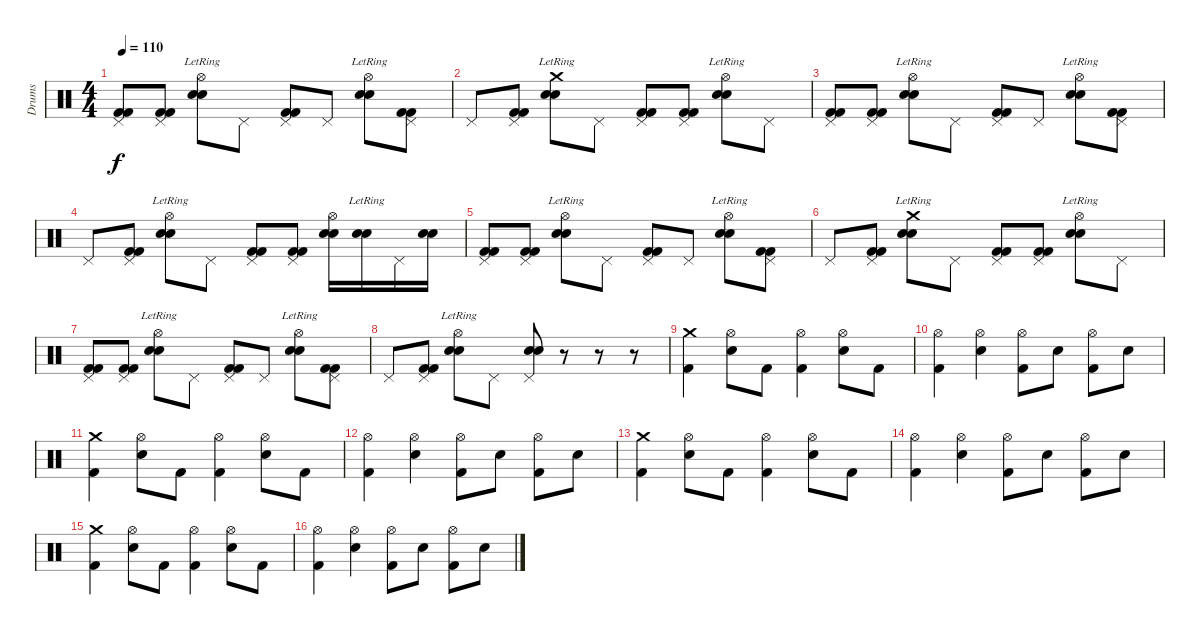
\track ("Drums" "Drums") {instrument percussion}
\staff {score}
\articulation defaults
\ts (4 4)
\tempo 110
\clef neutral
\ks c
("Pedal Hi-Hat (hit)" "Kick (hit) 2" "Kick (hit) 2").8{dy f} ("Pedal Hi-Hat (hit)" "Kick (hit) 2" "Kick (hit) 2").8 ("Hi-Hat (open)" "Electric Snare (hit)"{lr} "Snare (hit) 2").8 "Pedal Hi-Hat (hit)".8 ("Pedal Hi-Hat (hit)" "Kick (hit) 2" "Kick (hit) 2").8 "Pedal Hi-Hat (hit)".8 ("Hi-Hat (open)" "Electric Snare (hit)"{lr} "Snare (hit) 2").8 ("Pedal Hi-Hat (hit)" "Kick (hit) 2" "Kick (hit) 2").8 |
"Pedal Hi-Hat (hit)".8 ("Pedal Hi-Hat (hit)" "Kick (hit) 2" "Kick (hit) 2").8 ("Crash medium (hit)" "Electric Snare (hit)"{lr} "Snare (hit) 2").8 "Pedal Hi-Hat (hit)".8 ("Pedal Hi-Hat (hit)" "Kick (hit) 2" "Kick (hit) 2").8 ("Pedal Hi-Hat (hit)" "Kick (hit) 2" "Kick (hit) 2").8 ("Hi-Hat (open)" "Electric Snare (hit)"{lr} "Snare (hit) 2").8 "Pedal Hi-Hat (hit)".8 |
("Pedal Hi-Hat (hit)" "Kick (hit) 2" "Kick (hit) 2").8 ("Pedal Hi-Hat (hit)" "Kick (hit) 2" "Kick (hit) 2").8 ("Hi-Hat (open)" "Electric Snare (hit)"{lr} "Snare (hit) 2").8 "Pedal Hi-Hat (hit)".8 ("Pedal Hi-Hat (hit)" "Kick (hit) 2" "Kick (hit) 2").8 "Pedal Hi-Hat (hit)".8 ("Hi-Hat (open)" "Electric Snare (hit)"{lr} "Snare (hit) 2").8 ("Pedal Hi-Hat (hit)" "Kick (hit) 2" "Kick (hit) 2").8 |
"Pedal Hi-Hat (hit)".8 ("Pedal Hi-Hat (hit)" "Kick (hit) 2" "Kick (hit) 2").8 ("Hi-Hat (open)" "Electric Snare (hit)"{lr} "Snare (hit) 2").8 "Pedal Hi-Hat (hit)".8 ("Pedal Hi-Hat (hit)" "Kick (hit) 2" "Kick (hit) 2").8 ("Pedal Hi-Hat (hit)" "Kick (hit) 2" "Kick (hit) 2").8 ("Hi-Hat (open)" "Electric Snare (hit)" "Snare (hit) 2").16 ("Electric Snare (hit)"{lr} "Snare (hit) 2").16 "Pedal Hi-Hat (hit)".16 ("Electric Snare (hit)" "Snare (hit) 2").16 |
("Pedal Hi-Hat (hit)" "Kick (hit) 2" "Kick (hit) 2").8 ("Pedal Hi-Hat (hit)" "Kick (hit) 2" "Kick (hit) 2").8 ("Hi-Hat (open)" "Electric Snare (hit)"{lr} "Snare (hit) 2").8 "Pedal Hi-Hat (hit)".8 ("Pedal Hi-Hat (hit)" "Kick (hit) 2" "Kick (hit) 2").8 "Pedal Hi-Hat (hit)".8 ("Hi-Hat (open)" "Electric Snare (hit)"{lr} "Snare (hit) 2").8 ("Pedal Hi-Hat (hit)" "Kick (hit) 2" "Kick (hit) 2").8 |
"Pedal Hi-Hat (hit)".8 ("Pedal Hi-Hat (hit)" "Kick (hit) 2" "Kick (hit) 2").8 ("Crash medium (hit)" "Electric Snare (hit)"{lr} "Snare (hit) 2").8 "Pedal Hi-Hat (hit)".8 ("Pedal Hi-Hat (hit)" "Kick (hit) 2" "Kick (hit) 2").8 ("Pedal Hi-Hat (hit)" "Kick (hit) 2" "Kick (hit) 2").8 ("Hi-Hat (open)" "Electric Snare (hit)"{lr} "Snare (hit) 2").8 "Pedal Hi-Hat (hit)".8 |
("Pedal Hi-Hat (hit)" "Kick (hit) 2" "Kick (hit) 2").8 ("Pedal Hi-Hat (hit)" "Kick (hit) 2" "Kick (hit) 2").8 ("Hi-Hat (open)" "Electric Snare (hit)"{lr} "Snare (hit) 2").8 "Pedal Hi-Hat (hit)".8 ("Pedal Hi-Hat (hit)" "Kick (hit) 2" "Kick (hit) 2").8 "Pedal Hi-Hat (hit)".8 ("Hi-Hat (open)" "Electric Snare (hit)"{lr} "Snare (hit) 2").8 ("Pedal Hi-Hat (hit)" "Kick (hit) 2" "Kick (hit) 2").8 |
"Pedal Hi-Hat (hit)".8 ("Pedal Hi-Hat (hit)" "Kick (hit) 2" "Kick (hit) 2").8 ("Hi-Hat (open)" "Electric Snare (hit)"{lr} "Snare (hit) 2").8 "Pedal Hi-Hat (hit)".8 ("Pedal Hi-Hat (hit)" "Electric Snare (hit)" "Snare (hit) 2").8 r.8 r.8 r.8 |
("Crash medium (hit)" "Kick (hit) 2").4 ("Hi-Hat (open)" "Electric Snare (hit)").8 "Kick (hit) 2".8 ("Hi-Hat (open)" "Kick (hit) 2").4 ("Hi-Hat (open)" "Electric Snare (hit)").8 "Kick (hit) 2".8 |
("Hi-Hat (open)" "Kick (hit) 2").4 ("Hi-Hat (open)" "Electric Snare (hit)").4 ("Hi-Hat (open)" "Kick (hit) 2").8 "Electric Snare (hit)".8 ("Hi-Hat (open)" "Kick (hit) 2").8 "Electric Snare (hit)".8 |
("Crash medium (hit)" "Kick (hit) 2").4 ("Hi-Hat (open)" "Electric Snare (hit)").8 "Kick (hit) 2".8 ("Hi-Hat (open)" "Kick (hit) 2").4 ("Hi-Hat (open)" "Electric Snare (hit)").8 "Kick (hit) 2".8 |
("Hi-Hat (open)" "Kick (hit) 2").4 ("Hi-Hat (open)" "Electric Snare (hit)").4 ("Hi-Hat (open)" "Kick (hit) 2").8 "Electric Snare (hit)".8 ("Hi-Hat (open)" "Kick (hit) 2").8 "Electric Snare (hit)".8 |
("Crash medium (hit)" "Kick (hit) 2").4 ("Hi-Hat (open)" "Electric Snare (hit)").8 "Kick (hit) 2".8 ("Hi-Hat (open)" "Kick (hit) 2").4 ("Hi-Hat (open)" "Electric Snare (hit)").8 "Kick (hit) 2".8 |
("Hi-Hat (open)" "Kick (hit) 2").4 ("Hi-Hat (open)" "Electric Snare (hit)").4 ("Hi-Hat (open)" "Kick (hit) 2").8 "Electric Snare (hit)".8 ("Hi-Hat (open)" "Kick (hit) 2").8 "Electric Snare (hit)".8 |
("Crash medium (hit)" "Kick (hit) 2").4 ("Hi-Hat (open)" "Electric Snare (hit)").8 "Kick (hit) 2".8 ("Hi-Hat (open)" "Kick (hit) 2").4 ("Hi-Hat (open)" "Electric Snare (hit)").8 "Kick (hit) 2".8 |
("Hi-Hat (open)" "Kick (hit) 2").4 ("Hi-Hat (open)" "Electric Snare (hit)").4 ("Hi-Hat (open)" "Kick (hit) 2").8 "Electric Snare (hit)".8 ("Hi-Hat (open)" "Kick (hit) 2").8 "Electric Snare (hit)".8
